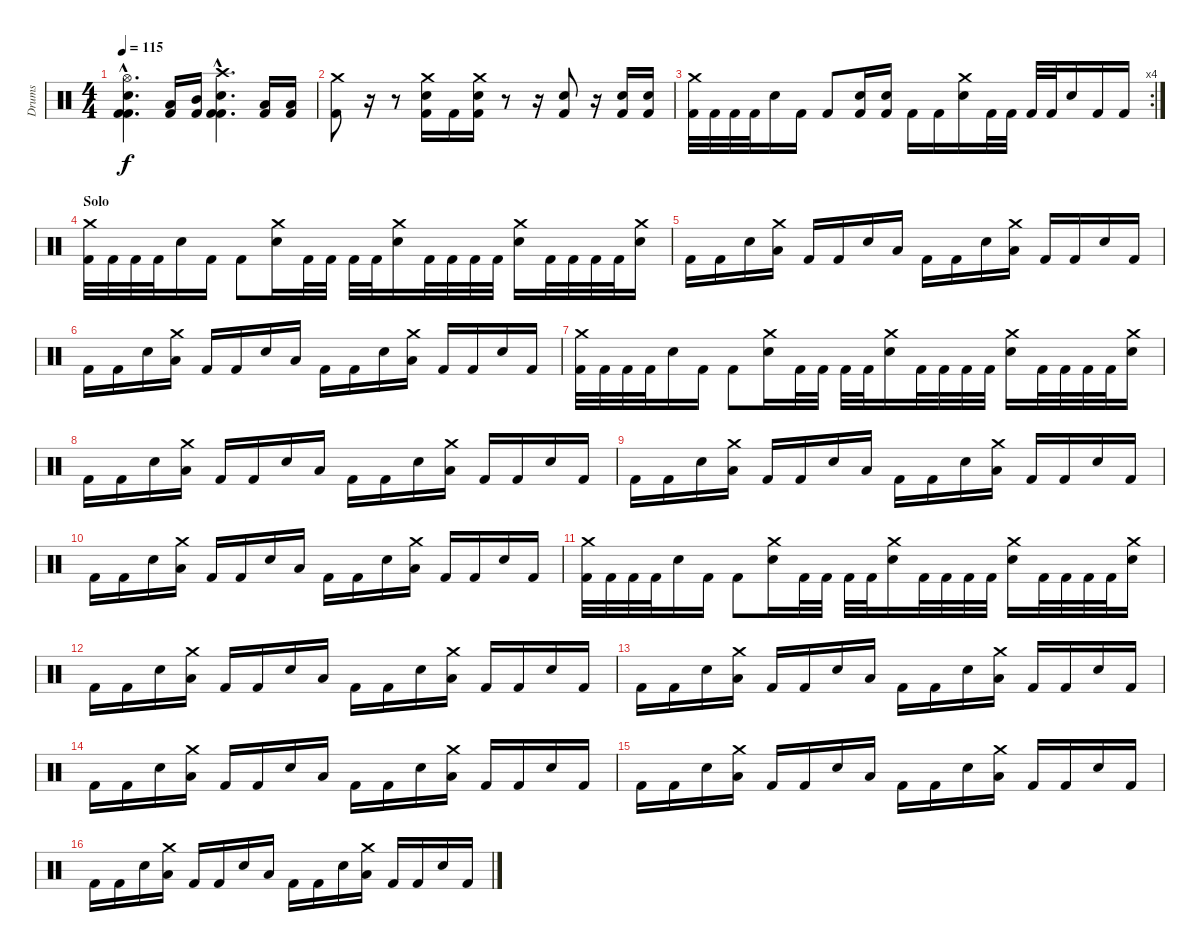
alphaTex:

\track ("Drums" "Drums") {instrument percussion}
\staff {score}
\articulation defaults
\ts (4 4)
\tempo 115
\clef neutral
\ks c
("Hi-Hat (open)"{hac} "Electric Snare (hit)"{hac} "Kick (hit) 2"{hac} "Kick (hit) 2"{hac}).4{d dy f} ("Low Tom (hit)" "Kick (hit) 2").16 ("Mid Tom (hit)" "Kick (hit) 2").16 ("Crash high (hit)"{hac} "Electric Snare (hit)"{hac} "Kick (hit) 2"{hac} "Kick (hit) 2"{hac}).4{d} ("Low Floor Tom (hit)" "Kick (hit) 2").16 ("Low Tom (hit)" "Kick (hit) 2").16 |
("Crash medium (hit)" "Kick (hit) 2").8 r.16 r.8 ("Crash medium (hit)" "Electric Snare (hit)" "Kick (hit) 2").16 "Kick (hit) 2".16 ("Crash medium (hit)" "Electric Snare (hit)" "Kick (hit) 2").16 r.8 r.16 ("Electric Snare (hit)" "Kick (hit) 2").8 r.16 ("Electric Snare (hit)" "Kick (hit) 2").16 ("Electric Snare (hit)" "Kick (hit) 2").16 |
\rc 4
("Crash medium (hit)" "Kick (hit) 2").32 "Kick (hit) 2".32 "Kick (hit) 2".32 "Kick (hit) 2".32 "Electric Snare (hit)".16 "Kick (hit) 2".16 "Kick (hit) 2".8 ("Electric Snare (hit)" "Kick (hit) 2").16 ("Electric Snare (hit)" "Kick (hit) 2").16 "Kick (hit) 2".16 "Kick (hit) 2".16 ("Crash medium (hit)" "Electric Snare (hit)").16 "Kick (hit) 2".32 "Kick (hit) 2".32 "Kick (hit) 2".32 "Kick (hit) 2".32 "Electric Snare (hit)".16 "Kick (hit) 2".16 "Kick (hit) 2".16 |
\section ("" "Solo")
("Crash medium (hit)" "Kick (hit) 2").32 "Kick (hit) 2".32 "Kick (hit) 2".32 "Kick (hit) 2".32 "Electric Snare (hit)".16 "Kick (hit) 2".16 "Kick (hit) 2".8 ("Crash medium (hit)" "Electric Snare (hit)").16 "Kick (hit) 2".32 "Kick (hit) 2".32 "Kick (hit) 2".32 "Kick (hit) 2".32 ("Crash medium (hit)" "Electric Snare (hit)").16 "Kick (hit) 2".32 "Kick (hit) 2".32 "Kick (hit) 2".32 "Kick (hit) 2".32 ("Crash medium (hit)" "Electric Snare (hit)").16 "Kick (hit) 2".32 "Kick (hit) 2".32 "Kick (hit) 2".32 "Kick (hit) 2".32 ("Crash medium (hit)" "Electric Snare (hit)").16 |
"Kick (hit) 2".16 "Kick (hit) 2".16 "Electric Snare (hit)".16 ("Crash medium (hit)" "Low Tom (hit)").16 "Kick (hit) 2".16 "Kick (hit) 2".16 "Electric Snare (hit)".16 "Low Tom (hit)".16 "Kick (hit) 2".16 "Kick (hit) 2".16 "Electric Snare (hit)".16 ("Crash medium (hit)" "Low Tom (hit)").16 "Kick (hit) 2".16 "Kick (hit) 2".16 "Electric Snare (hit)".16 "Kick (hit) 2".16 |
"Kick (hit) 2".16 "Kick (hit) 2".16 "Electric Snare (hit)".16 ("Crash medium (hit)" "Low Tom (hit)").16 "Kick (hit) 2".16 "Kick (hit) 2".16 "Electric Snare (hit)".16 "Low Tom (hit)".16 "Kick (hit) 2".16 "Kick (hit) 2".16 "Electric Snare (hit)".16 ("Crash medium (hit)" "Low Tom (hit)").16 "Kick (hit) 2".16 "Kick (hit) 2".16 "Electric Snare (hit)".16 "Kick (hit) 2".16 |
("Crash medium (hit)" "Kick (hit) 2").32 "Kick (hit) 2".32 "Kick (hit) 2".32 "Kick (hit) 2".32 "Electric Snare (hit)".16 "Kick (hit) 2".16 "Kick (hit) 2".8 ("Crash medium (hit)" "Electric Snare (hit)").16 "Kick (hit) 2".32 "Kick (hit) 2".32 "Kick (hit) 2".32 "Kick (hit) 2".32 ("Crash medium (hit)" "Electric Snare (hit)").16 "Kick (hit) 2".32 "Kick (hit) 2".32 "Kick (hit) 2".32 "Kick (hit) 2".32 ("Crash medium (hit)" "Electric Snare (hit)").16 "Kick (hit) 2".32 "Kick (hit) 2".32 "Kick (hit) 2".32 "Kick (hit) 2".32 ("Crash medium (hit)" "Electric Snare (hit)").16 |
"Kick (hit) 2".16 "Kick (hit) 2".16 "Electric Snare (hit)".16 ("Crash medium (hit)" "Low Tom (hit)").16 "Kick (hit) 2".16 "Kick (hit) 2".16 "Electric Snare (hit)".16 "Low Tom (hit)".16 "Kick (hit) 2".16 "Kick (hit) 2".16 "Electric Snare (hit)".16 ("Crash medium (hit)" "Low Tom (hit)").16 "Kick (hit) 2".16 "Kick (hit) 2".16 "Electric Snare (hit)".16 "Kick (hit) 2".16 |
"Kick (hit) 2".16 "Kick (hit) 2".16 "Electric Snare (hit)".16 ("Crash medium (hit)" "Low Tom (hit)").16 "Kick (hit) 2".16 "Kick (hit) 2".16 "Electric Snare (hit)".16 "Low Tom (hit)".16 "Kick (hit) 2".16 "Kick (hit) 2".16 "Electric Snare (hit)".16 ("Crash medium (hit)" "Low Tom (hit)").16 "Kick (hit) 2".16 "Kick (hit) 2".16 "Electric Snare (hit)".16 "Kick (hit) 2".16 |
"Kick (hit) 2".16 "Kick (hit) 2".16 "Electric Snare (hit)".16 ("Crash medium (hit)" "Low Tom (hit)").16 "Kick (hit) 2".16 "Kick (hit) 2".16 "Electric Snare (hit)".16 "Low Tom (hit)".16 "Kick (hit) 2".16 "Kick (hit) 2".16 "Electric Snare (hit)".16 ("Crash medium (hit)" "Low Tom (hit)").16 "Kick (hit) 2".16 "Kick (hit) 2".16 "Electric Snare (hit)".16 "Kick (hit) 2".16 |
("Crash medium (hit)" "Kick (hit) 2").32 "Kick (hit) 2".32 "Kick (hit) 2".32 "Kick (hit) 2".32 "Electric Snare (hit)".16 "Kick (hit) 2".16 "Kick (hit) 2".8 ("Crash medium (hit)" "Electric Snare (hit)").16 "Kick (hit) 2".32 "Kick (hit) 2".32 "Kick (hit) 2".32 "Kick (hit) 2".32 ("Crash medium (hit)" "Electric Snare (hit)").16 "Kick (hit) 2".32 "Kick (hit) 2".32 "Kick (hit) 2".32 "Kick (hit) 2".32 ("Crash medium (hit)" "Electric Snare (hit)").16 "Kick (hit) 2".32 "Kick (hit) 2".32 "Kick (hit) 2".32 "Kick (hit) 2".32 ("Crash medium (hit)" "Electric Snare (hit)").16 |
"Kick (hit) 2".16 "Kick (hit) 2".16 "Electric Snare (hit)".16 ("Crash medium (hit)" "Low Tom (hit)").16 "Kick (hit) 2".16 "Kick (hit) 2".16 "Electric Snare (hit)".16 "Low Tom (hit)".16 "Kick (hit) 2".16 "Kick (hit) 2".16 "Electric Snare (hit)".16 ("Crash medium (hit)" "Low Tom (hit)").16 "Kick (hit) 2".16 "Kick (hit) 2".16 "Electric Snare (hit)".16 "Kick (hit) 2".16 |
"Kick (hit) 2".16 "Kick (hit) 2".16 "Electric Snare (hit)".16 ("Crash medium (hit)" "Low Tom (hit)").16 "Kick (hit) 2".16 "Kick (hit) 2".16 "Electric Snare (hit)".16 "Low Tom (hit)".16 "Kick (hit) 2".16 "Kick (hit) 2".16 "Electric Snare (hit)".16 ("Crash medium (hit)" "Low Tom (hit)").16 "Kick (hit) 2".16 "Kick (hit) 2".16 "Electric Snare (hit)".16 "Kick (hit) 2".16 |
"Kick (hit) 2".16 "Kick (hit) 2".16 "Electric Snare (hit)".16 ("Crash medium (hit)" "Low Tom (hit)").16 "Kick (hit) 2".16 "Kick (hit) 2".16 "Electric Snare (hit)".16 "Low Tom (hit)".16 "Kick (hit) 2".16 "Kick (hit) 2".16 "Electric Snare (hit)".16 ("Crash medium (hit)" "Low Tom (hit)").16 "Kick (hit) 2".16 "Kick (hit) 2".16 "Electric Snare (hit)".16 "Kick (hit) 2".16 |
"Kick (hit) 2".16 "Kick (hit) 2".16 "Electric Snare (hit)".16 ("Crash medium (hit)" "Low Tom (hit)").16 "Kick (hit) 2".16 "Kick (hit) 2".16 "Electric Snare (hit)".16 "Low Tom (hit)".16 "Kick (hit) 2".16 "Kick (hit) 2".16 "Electric Snare (hit)".16 ("Crash medium (hit)" "Low Tom (hit)").16 "Kick (hit) 2".16 "Kick (hit) 2".16 "Electric Snare (hit)".16 "Kick (hit) 2".16 |
"Kick (hit) 2".16 "Kick (hit) 2".16 "Electric Snare (hit)".16 ("Crash medium (hit)" "Low Tom (hit)").16 "Kick (hit) 2".16 "Kick (hit) 2".16 "Electric Snare (hit)".16 "Low Tom (hit)".16 "Kick (hit) 2".16 "Kick (hit) 2".16 "Electric Snare (hit)".16 ("Crash medium (hit)" "Low Tom (hit)").16 "Kick (hit) 2".16 "Kick (hit) 2".16 "Electric Snare (hit)".16 "Kick (hit) 2".16
